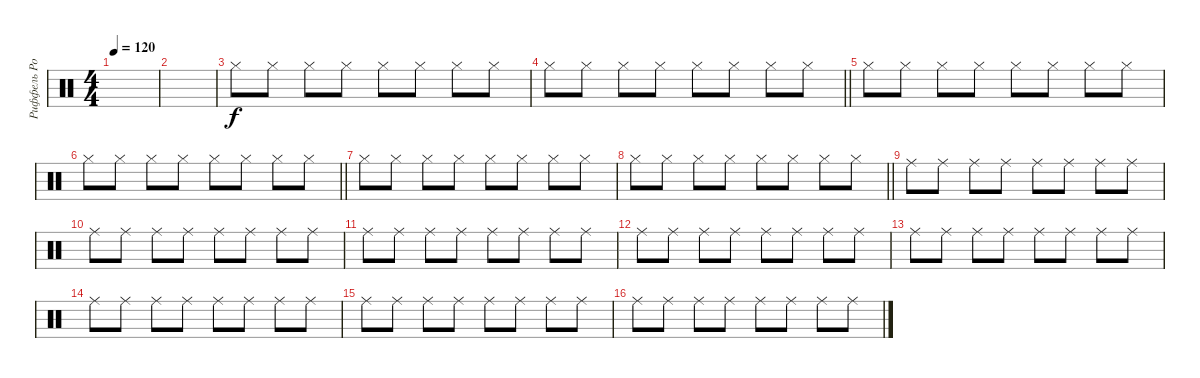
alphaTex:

\track ("Риффель Роман (хэты)" "Риффель Ро") {instrument percussion}
\staff {score}
\articulation defaults
\ts (4 4)
\tempo 120
\clef neutral
\ks c
|
|
"Hi-Hat (closed)".8 "Hi-Hat (closed)".8 "Hi-Hat (closed)".8 "Hi-Hat (closed)".8 "Hi-Hat (closed)".8 "Hi-Hat (closed)".8 "Hi-Hat (closed)".8 "Hi-Hat (closed)".8 |
\barLineRight lightlight "Hi-Hat (closed)".8 "Hi-Hat (closed)".8 "Hi-Hat (closed)".8 "Hi-Hat (closed)".8 "Hi-Hat (closed)".8 "Hi-Hat (closed)".8 "Hi-Hat (closed)".8 "Hi-Hat (closed)".8
|
"Hi-Hat (closed)".8 "Hi-Hat (closed)".8 "Hi-Hat (closed)".8 "Hi-Hat (closed)".8 "Hi-Hat (closed)".8 "Hi-Hat (closed)".8 "Hi-Hat (closed)".8 "Hi-Hat (closed)".8 |
\barLineRight lightlight "Hi-Hat (closed)".8 "Hi-Hat (closed)".8 "Hi-Hat (closed)".8 "Hi-Hat (closed)".8 "Hi-Hat (closed)".8 "Hi-Hat (closed)".8 "Hi-Hat (closed)".8 "Hi-Hat (closed)".8
|
"Hi-Hat (closed)".8 "Hi-Hat (closed)".8 "Hi-Hat (closed)".8 "Hi-Hat (closed)".8 "Hi-Hat (closed)".8 "Hi-Hat (closed)".8 "Hi-Hat (closed)".8 "Hi-Hat (closed)".8 |
\barLineRight lightlight "Hi-Hat (closed)".8 "Hi-Hat (closed)".8 "Hi-Hat (closed)".8 "Hi-Hat (closed)".8 "Hi-Hat (closed)".8 "Hi-Hat (closed)".8 "Hi-Hat (closed)".8 "Hi-Hat (closed)".8
|
"Ride (middle)".8 "Ride (middle)".8 "Ride (middle)".8 "Ride (middle)".8 "Ride (middle)".8 "Ride (middle)".8 "Ride (middle)".8 "Ride (middle)".8 |
"Ride (middle)".8 "Ride (middle)".8 "Ride (middle)".8 "Ride (middle)".8 "Ride (middle)".8 "Ride (middle)".8 "Ride (middle)".8 "Ride (middle)".8 |
"Ride (middle)".8 "Ride (middle)".8 "Ride (middle)".8 "Ride (middle)".8 "Ride (middle)".8 "Ride (middle)".8 "Ride (middle)".8 "Ride (middle)".8 |
"Ride (middle)".8 "Ride (middle)".8 "Ride (middle)".8 "Ride (middle)".8 "Ride (middle)".8 "Ride (middle)".8 "Ride (middle)".8 "Ride (middle)".8 |
"Ride (middle)".8 "Ride (middle)".8 "Ride (middle)".8 "Ride (middle)".8 "Ride (middle)".8 "Ride (middle)".8 "Ride (middle)".8 "Ride (middle)".8 |
"Ride (middle)".8 "Ride (middle)".8 "Ride (middle)".8 "Ride (middle)".8 "Ride (middle)".8 "Ride (middle)".8 "Ride (middle)".8 "Ride (middle)".8 |
"Ride (middle)".8 "Ride (middle)".8 "Ride (middle)".8 "Ride (middle)".8 "Ride (middle)".8 "Ride (middle)".8 "Ride (middle)".8 "Ride (middle)".8 |
"Ride (middle)".8 "Ride (middle)".8 "Ride (middle)".8 "Ride (middle)".8 "Ride (middle)".8 "Ride (middle)".8 "Ride (middle)".8 "Ride (middle)".8
